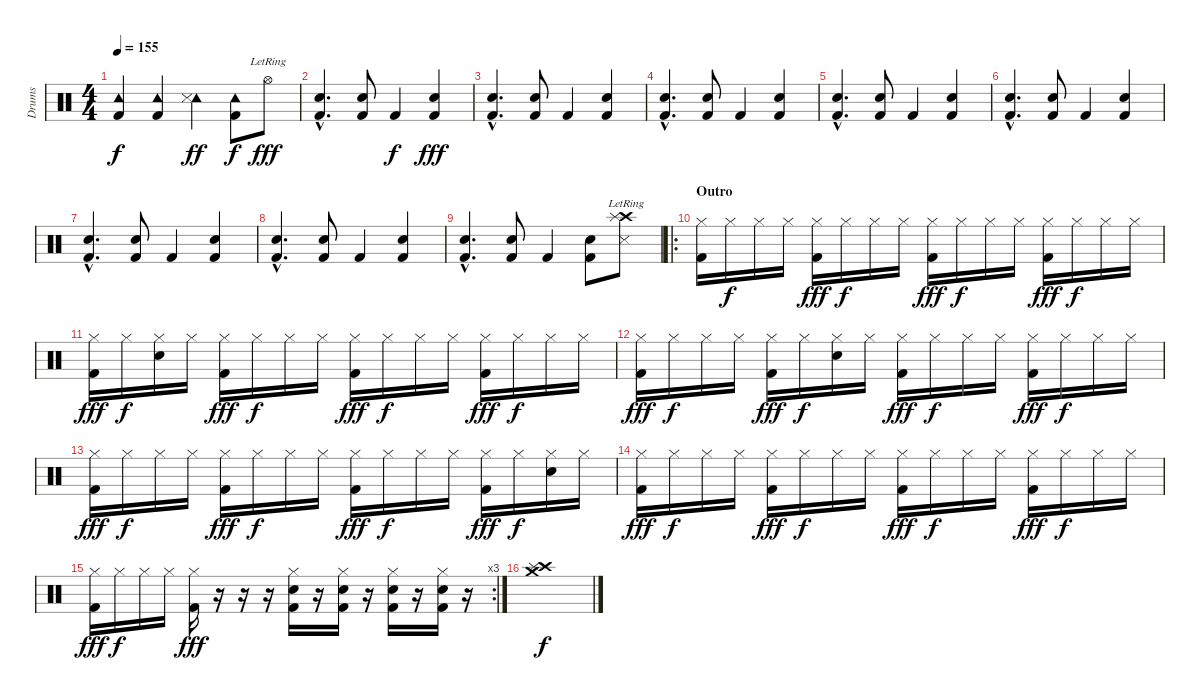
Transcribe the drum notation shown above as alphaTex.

\track ("Drums" "Drums") {instrument percussion}
\staff {score}
\articulation defaults
\ts (4 4)
\tempo 155
\clef neutral
\ks c
("Tambourine (hit)" "Kick (hit) 2").4{dy f} ("Tambourine (hit)" "Kick (hit) 2").4 ("Tambourine (hit)" "Snare (side stick) 3").4{dy ff} ("Tambourine (hit)" "Kick (hit) 2").8{dy f} "Hi-Hat (open)"{lr}.8{dy fff} |
("Snare (hit) 2"{hac} "Kick (hit) 2"{hac}).4{d} ("Snare (hit) 2" "Kick (hit) 2").8 "Kick (hit) 2".4{dy f} ("Snare (hit) 2" "Kick (hit) 2").4{dy fff} |
("Snare (hit) 2"{hac} "Kick (hit) 2"{hac}).4{d} ("Snare (hit) 2" "Kick (hit) 2").8 "Kick (hit) 2".4 ("Snare (hit) 2" "Kick (hit) 2").4 |
("Snare (hit) 2"{hac} "Kick (hit) 2"{hac}).4{d} ("Snare (hit) 2" "Kick (hit) 2").8 "Kick (hit) 2".4 ("Snare (hit) 2" "Kick (hit) 2").4 |
("Snare (hit) 2"{hac} "Kick (hit) 2"{hac}).4{d} ("Snare (hit) 2" "Kick (hit) 2").8 "Kick (hit) 2".4 ("Snare (hit) 2" "Kick (hit) 2").4 |
("Snare (hit) 2"{hac} "Kick (hit) 2"{hac}).4{d} ("Snare (hit) 2" "Kick (hit) 2").8 "Kick (hit) 2".4 ("Snare (hit) 2" "Kick (hit) 2").4 |
("Snare (hit) 2"{hac} "Kick (hit) 2"{hac}).4{d} ("Snare (hit) 2" "Kick (hit) 2").8 "Kick (hit) 2".4 ("Snare (hit) 2" "Kick (hit) 2").4 |
("Snare (hit) 2"{hac} "Kick (hit) 2"{hac}).4{d} ("Snare (hit) 2" "Kick (hit) 2").8 "Kick (hit) 2".4 ("Snare (hit) 2" "Kick (hit) 2").4 |
("Snare (hit) 2"{hac} "Kick (hit) 2"{hac}).4{d} ("Snare (hit) 2" "Kick (hit) 2").8 "Kick (hit) 2".4 ("Snare (hit) 2" "Kick (hit) 2").8 ("Crash high (hit)"{lr} "Splash (hit)"{lr} "Snare (side stick) 3").8 |
\ro
\section ("" "Outro")
("Hi-Hat (closed)" "Kick (hit) 2").16 "Hi-Hat (closed)".16{dy f} "Hi-Hat (closed)".16 "Hi-Hat (closed)".16 ("Hi-Hat (closed)" "Kick (hit) 2").16{dy fff} "Hi-Hat (closed)".16{dy f} "Hi-Hat (closed)".16 "Hi-Hat (closed)".16 ("Hi-Hat (closed)" "Kick (hit) 2").16{dy fff} "Hi-Hat (closed)".16{dy f} "Hi-Hat (closed)".16 "Hi-Hat (closed)".16 ("Hi-Hat (closed)" "Kick (hit) 2").16{dy fff} "Hi-Hat (closed)".16{dy f} "Hi-Hat (closed)".16 "Hi-Hat (closed)".16 |
("Hi-Hat (closed)" "Kick (hit) 2").16{dy fff} "Hi-Hat (closed)".16{dy f} ("Hi-Hat (closed)" "Snare (hit) 2").16 "Hi-Hat (closed)".16 ("Hi-Hat (closed)" "Kick (hit) 2").16{dy fff} "Hi-Hat (closed)".16{dy f} "Hi-Hat (closed)".16 "Hi-Hat (closed)".16 ("Hi-Hat (closed)" "Kick (hit) 2").16{dy fff} "Hi-Hat (closed)".16{dy f} "Hi-Hat (closed)".16 "Hi-Hat (closed)".16 ("Hi-Hat (closed)" "Kick (hit) 2").16{dy fff} "Hi-Hat (closed)".16{dy f} "Hi-Hat (closed)".16 "Hi-Hat (closed)".16 |
("Hi-Hat (closed)" "Kick (hit) 2").16{dy fff} "Hi-Hat (closed)".16{dy f} "Hi-Hat (closed)".16 "Hi-Hat (closed)".16 ("Hi-Hat (closed)" "Kick (hit) 2").16{dy fff} "Hi-Hat (closed)".16{dy f} ("Hi-Hat (closed)" "Snare (hit) 2").16 "Hi-Hat (closed)".16 ("Hi-Hat (closed)" "Kick (hit) 2").16{dy fff} "Hi-Hat (closed)".16{dy f} "Hi-Hat (closed)".16 "Hi-Hat (closed)".16 ("Hi-Hat (closed)" "Kick (hit) 2").16{dy fff} "Hi-Hat (closed)".16{dy f} "Hi-Hat (closed)".16 "Hi-Hat (closed)".16 |
("Hi-Hat (closed)" "Kick (hit) 2").16{dy fff} "Hi-Hat (closed)".16{dy f} "Hi-Hat (closed)".16 "Hi-Hat (closed)".16 ("Hi-Hat (closed)" "Kick (hit) 2").16{dy fff} "Hi-Hat (closed)".16{dy f} "Hi-Hat (closed)".16 "Hi-Hat (closed)".16 ("Hi-Hat (closed)" "Kick (hit) 2").16{dy fff} "Hi-Hat (closed)".16{dy f} "Hi-Hat (closed)".16 "Hi-Hat (closed)".16 ("Hi-Hat (closed)" "Kick (hit) 2").16{dy fff} "Hi-Hat (closed)".16{dy f} ("Hi-Hat (closed)" "Snare (hit) 2").16 "Hi-Hat (closed)".16 |
("Hi-Hat (closed)" "Kick (hit) 2").16{dy fff} "Hi-Hat (closed)".16{dy f} "Hi-Hat (closed)".16 "Hi-Hat (closed)".16 ("Hi-Hat (closed)" "Kick (hit) 2").16{dy fff} "Hi-Hat (closed)".16{dy f} "Hi-Hat (closed)".16 "Hi-Hat (closed)".16 ("Hi-Hat (closed)" "Kick (hit) 2").16{dy fff} "Hi-Hat (closed)".16{dy f} "Hi-Hat (closed)".16 "Hi-Hat (closed)".16 ("Hi-Hat (closed)" "Kick (hit) 2").16{dy fff} "Hi-Hat (closed)".16{dy f} "Hi-Hat (closed)".16 "Hi-Hat (closed)".16 |
\rc 3
("Hi-Hat (closed)" "Kick (hit) 2").16{dy fff} "Hi-Hat (closed)".16{dy f} "Hi-Hat (closed)".16 "Hi-Hat (closed)".16 ("Hi-Hat (closed)" "Kick (hit) 2").16{dy fff} r.16 r.16 r.16 ("Hi-Hat (closed)" "Snare (hit) 2" "Kick (hit) 2").16 r.16 ("Hi-Hat (closed)" "Snare (hit) 2" "Kick (hit) 2").16 r.16 ("Hi-Hat (closed)" "Snare (hit) 2" "Kick (hit) 2").16 r.16 ("Hi-Hat (closed)" "Snare (hit) 2" "Kick (hit) 2").16 r.16 |
("Crash high (hit)" "Splash (hit)" "Crash medium (hit)").1{dy f}
